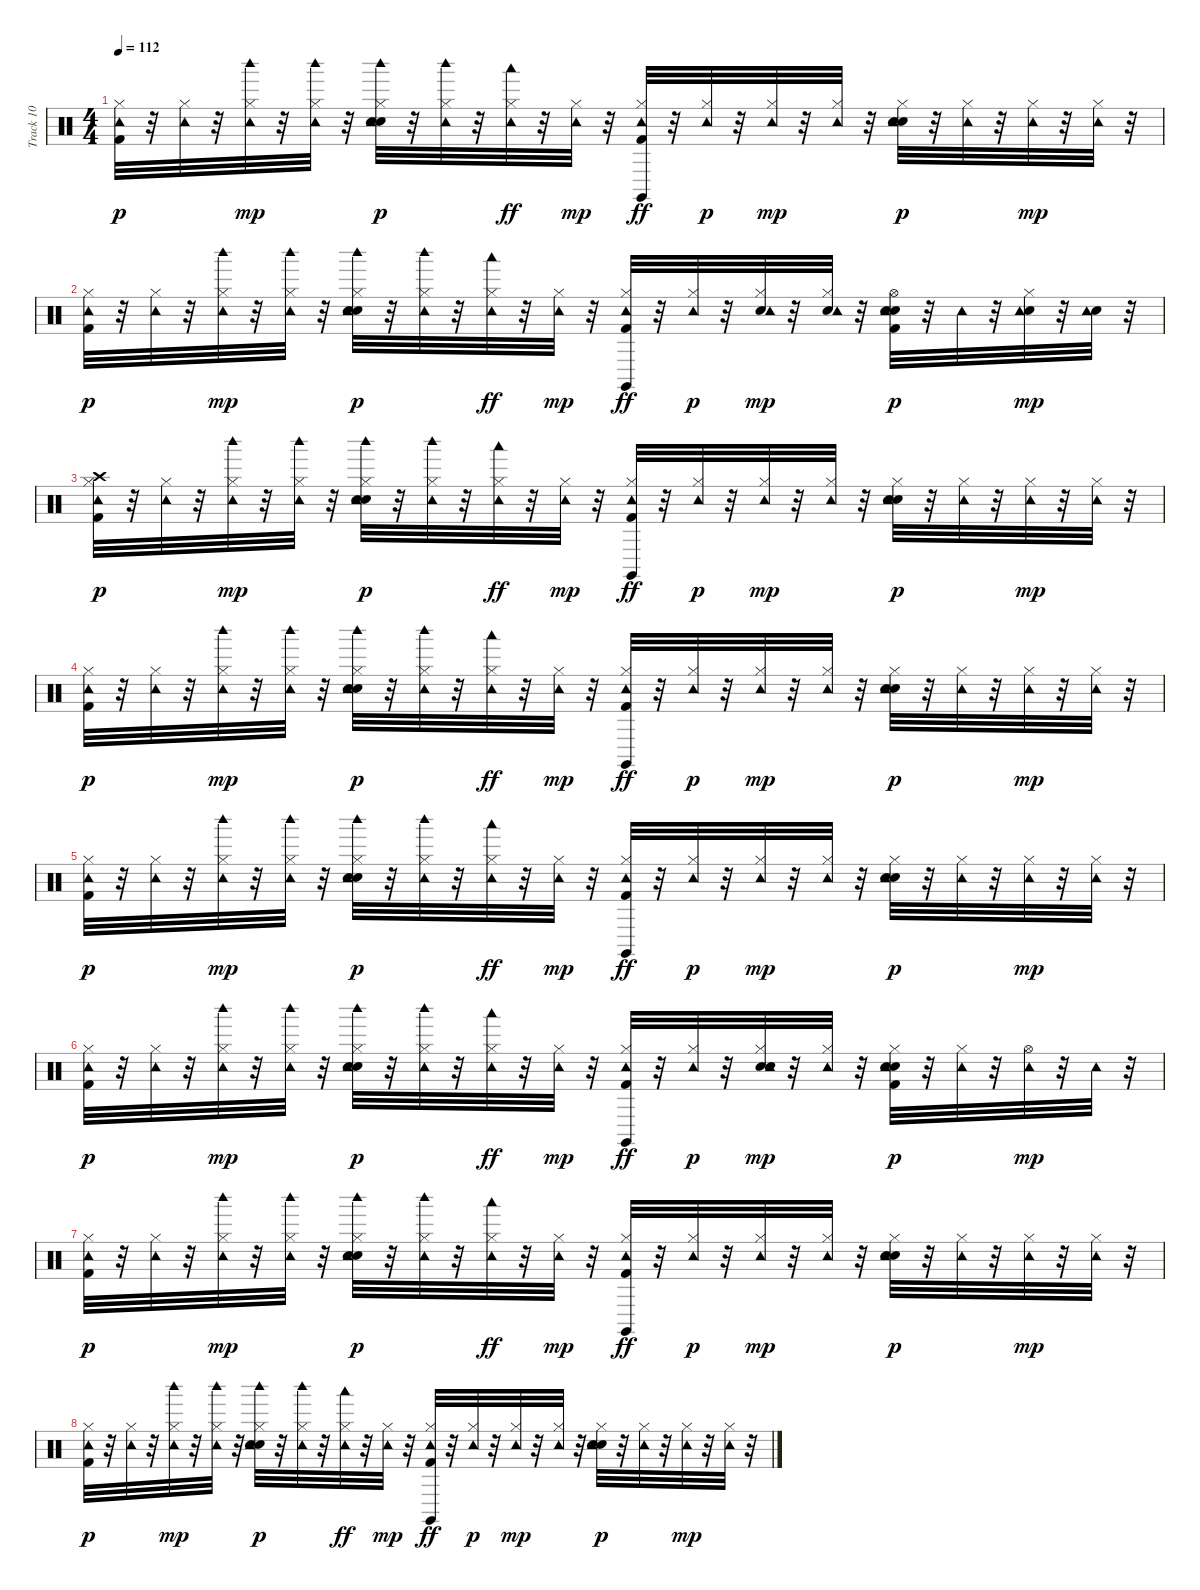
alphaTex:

\track ("Track 10" "Track 10") {instrument percussion}
\staff {score}
\articulation defaults
\ts (4 4)
\tempo 112
\clef neutral
\ks c
("Kick (hit) 2" "Hi-Hat (closed)" "Tambourine (hit)").32{dy p} r.32 ("Hi-Hat (closed)" "Tambourine (hit)").32 r.32 ("Hi-Hat (closed)" "Tambourine (hit)" "Woodblock high (hit)").32{dy mp} r.32 ("Hi-Hat (closed)" "Tambourine (hit)" "Woodblock high (hit)").32 r.32 ("Hand Clap (hit)" "Electric Snare (hit)" "Hi-Hat (closed)" "Tambourine (hit)" "Woodblock high (hit)").32{dy p} r.32 ("Hi-Hat (closed)" "Tambourine (hit)" "Woodblock high (hit)").32 r.32 ("Hi-Hat (closed)" "Tambourine (hit)" "Woodblock low (hit)").32{dy ff} r.32 ("Hi-Hat (closed)" "Tambourine (hit)").32{dy mp} r.32 ("Kick (hit) 2" "Hi-Hat (closed)" "Tambourine (hit)" "Claves (hit)").32{dy ff} r.32 ("Hi-Hat (closed)" "Tambourine (hit)").32{dy p} r.32 ("Hi-Hat (closed)" "Tambourine (hit)").32{dy mp} r.32 ("Hi-Hat (closed)" "Tambourine (hit)").32 r.32 ("Hand Clap (hit)" "Electric Snare (hit)" "Hi-Hat (closed)" "Tambourine (hit)").32{dy p} r.32 ("Hi-Hat (closed)" "Tambourine (hit)").32 r.32 ("Hi-Hat (closed)" "Tambourine (hit)").32{dy mp} r.32 ("Hi-Hat (closed)" "Tambourine (hit)").32 r.32 |
("Kick (hit) 2" "Hi-Hat (closed)" "Tambourine (hit)").32{dy p} r.32 ("Hi-Hat (closed)" "Tambourine (hit)").32 r.32 ("Hi-Hat (closed)" "Tambourine (hit)" "Woodblock high (hit)").32{dy mp} r.32 ("Hi-Hat (closed)" "Tambourine (hit)" "Woodblock high (hit)").32 r.32 ("Hand Clap (hit)" "Electric Snare (hit)" "Hi-Hat (closed)" "Tambourine (hit)" "Woodblock high (hit)").32{dy p} r.32 ("Hi-Hat (closed)" "Tambourine (hit)" "Woodblock high (hit)").32 r.32 ("Hi-Hat (closed)" "Tambourine (hit)" "Woodblock low (hit)").32{dy ff} r.32 ("Hi-Hat (closed)" "Tambourine (hit)").32{dy mp} r.32 ("Kick (hit) 2" "Hi-Hat (closed)" "Tambourine (hit)" "Claves (hit)").32{dy ff} r.32 ("Hi-Hat (closed)" "Tambourine (hit)").32{dy p} r.32 ("Hand Clap (hit)" "Hi-Hat (closed)" "Tambourine (hit)").32{dy mp} r.32 ("Hand Clap (hit)" "Hi-Hat (closed)" "Tambourine (hit)").32 r.32 ("Kick (hit) 2" "Hand Clap (hit)" "Electric Snare (hit)" "Hi-Hat (open)" "Tambourine (hit)").32{dy p} r.32 "Tambourine (hit)".32 r.32 ("Electric Snare (hit)" "Hi-Hat (closed)" "Tambourine (hit)").32{dy mp} r.32 ("Electric Snare (hit)" "Tambourine (hit)").32 r.32 |
("Kick (hit) 2" "Hi-Hat (closed)" "Crash high (hit)" "Tambourine (hit)").32{dy p} r.32 ("Hi-Hat (closed)" "Tambourine (hit)").32 r.32 ("Hi-Hat (closed)" "Tambourine (hit)" "Woodblock high (hit)").32{dy mp} r.32 ("Hi-Hat (closed)" "Tambourine (hit)" "Woodblock high (hit)").32 r.32 ("Hand Clap (hit)" "Electric Snare (hit)" "Hi-Hat (closed)" "Tambourine (hit)" "Woodblock high (hit)").32{dy p} r.32 ("Hi-Hat (closed)" "Tambourine (hit)" "Woodblock high (hit)").32 r.32 ("Hi-Hat (closed)" "Tambourine (hit)" "Woodblock low (hit)").32{dy ff} r.32 ("Hi-Hat (closed)" "Tambourine (hit)").32{dy mp} r.32 ("Kick (hit) 2" "Hi-Hat (closed)" "Tambourine (hit)" "Claves (hit)").32{dy ff} r.32 ("Hi-Hat (closed)" "Tambourine (hit)").32{dy p} r.32 ("Hi-Hat (closed)" "Tambourine (hit)").32{dy mp} r.32 ("Hi-Hat (closed)" "Tambourine (hit)").32 r.32 ("Hand Clap (hit)" "Electric Snare (hit)" "Hi-Hat (closed)" "Tambourine (hit)").32{dy p} r.32 ("Hi-Hat (closed)" "Tambourine (hit)").32 r.32 ("Hi-Hat (closed)" "Tambourine (hit)").32{dy mp} r.32 ("Hi-Hat (closed)" "Tambourine (hit)").32 r.32 |
("Kick (hit) 2" "Hi-Hat (closed)" "Tambourine (hit)").32{dy p} r.32 ("Hi-Hat (closed)" "Tambourine (hit)").32 r.32 ("Hi-Hat (closed)" "Tambourine (hit)" "Woodblock high (hit)").32{dy mp} r.32 ("Hi-Hat (closed)" "Tambourine (hit)" "Woodblock high (hit)").32 r.32 ("Hand Clap (hit)" "Electric Snare (hit)" "Hi-Hat (closed)" "Tambourine (hit)" "Woodblock high (hit)").32{dy p} r.32 ("Hi-Hat (closed)" "Tambourine (hit)" "Woodblock high (hit)").32 r.32 ("Hi-Hat (closed)" "Tambourine (hit)" "Woodblock low (hit)").32{dy ff} r.32 ("Hi-Hat (closed)" "Tambourine (hit)").32{dy mp} r.32 ("Kick (hit) 2" "Hi-Hat (closed)" "Tambourine (hit)" "Claves (hit)").32{dy ff} r.32 ("Hi-Hat (closed)" "Tambourine (hit)").32{dy p} r.32 ("Hi-Hat (closed)" "Tambourine (hit)").32{dy mp} r.32 ("Hi-Hat (closed)" "Tambourine (hit)").32 r.32 ("Hand Clap (hit)" "Electric Snare (hit)" "Hi-Hat (closed)" "Tambourine (hit)").32{dy p} r.32 ("Hi-Hat (closed)" "Tambourine (hit)").32 r.32 ("Hi-Hat (closed)" "Tambourine (hit)").32{dy mp} r.32 ("Hi-Hat (closed)" "Tambourine (hit)").32 r.32 |
("Kick (hit) 2" "Hi-Hat (closed)" "Tambourine (hit)").32{dy p} r.32 ("Hi-Hat (closed)" "Tambourine (hit)").32 r.32 ("Hi-Hat (closed)" "Tambourine (hit)" "Woodblock high (hit)").32{dy mp} r.32 ("Hi-Hat (closed)" "Tambourine (hit)" "Woodblock high (hit)").32 r.32 ("Hand Clap (hit)" "Electric Snare (hit)" "Hi-Hat (closed)" "Tambourine (hit)" "Woodblock high (hit)").32{dy p} r.32 ("Hi-Hat (closed)" "Tambourine (hit)" "Woodblock high (hit)").32 r.32 ("Hi-Hat (closed)" "Tambourine (hit)" "Woodblock low (hit)").32{dy ff} r.32 ("Hi-Hat (closed)" "Tambourine (hit)").32{dy mp} r.32 ("Kick (hit) 2" "Hi-Hat (closed)" "Tambourine (hit)" "Claves (hit)").32{dy ff} r.32 ("Hi-Hat (closed)" "Tambourine (hit)").32{dy p} r.32 ("Hi-Hat (closed)" "Tambourine (hit)").32{dy mp} r.32 ("Hi-Hat (closed)" "Tambourine (hit)").32 r.32 ("Hand Clap (hit)" "Electric Snare (hit)" "Hi-Hat (closed)" "Tambourine (hit)").32{dy p} r.32 ("Hi-Hat (closed)" "Tambourine (hit)").32 r.32 ("Hi-Hat (closed)" "Tambourine (hit)").32{dy mp} r.32 ("Hi-Hat (closed)" "Tambourine (hit)").32 r.32 |
("Kick (hit) 2" "Hi-Hat (closed)" "Tambourine (hit)").32{dy p} r.32 ("Hi-Hat (closed)" "Tambourine (hit)").32 r.32 ("Hi-Hat (closed)" "Tambourine (hit)" "Woodblock high (hit)").32{dy mp} r.32 ("Hi-Hat (closed)" "Tambourine (hit)" "Woodblock high (hit)").32 r.32 ("Hand Clap (hit)" "Electric Snare (hit)" "Hi-Hat (closed)" "Tambourine (hit)" "Woodblock high (hit)").32{dy p} r.32 ("Hi-Hat (closed)" "Tambourine (hit)" "Woodblock high (hit)").32 r.32 ("Hi-Hat (closed)" "Tambourine (hit)" "Woodblock low (hit)").32{dy ff} r.32 ("Hi-Hat (closed)" "Tambourine (hit)").32{dy mp} r.32 ("Kick (hit) 2" "Hi-Hat (closed)" "Tambourine (hit)" "Claves (hit)").32{dy ff} r.32 ("Hi-Hat (closed)" "Tambourine (hit)").32{dy p} r.32 ("Hand Clap (hit)" "Electric Snare (hit)" "Hi-Hat (closed)" "Tambourine (hit)").32{dy mp} r.32 ("Hi-Hat (closed)" "Tambourine (hit)").32 r.32 ("Kick (hit) 2" "Hand Clap (hit)" "Electric Snare (hit)" "Hi-Hat (closed)" "Tambourine (hit)").32{dy p} r.32 ("Hi-Hat (closed)" "Tambourine (hit)").32 r.32 ("Hi-Hat (open)" "Tambourine (hit)").32{dy mp} r.32 "Tambourine (hit)".32 r.32 |
("Kick (hit) 2" "Hi-Hat (closed)" "Tambourine (hit)").32{dy p} r.32 ("Hi-Hat (closed)" "Tambourine (hit)").32 r.32 ("Hi-Hat (closed)" "Tambourine (hit)" "Woodblock high (hit)").32{dy mp} r.32 ("Hi-Hat (closed)" "Tambourine (hit)" "Woodblock high (hit)").32 r.32 ("Hand Clap (hit)" "Electric Snare (hit)" "Hi-Hat (closed)" "Tambourine (hit)" "Woodblock high (hit)").32{dy p} r.32 ("Hi-Hat (closed)" "Tambourine (hit)" "Woodblock high (hit)").32 r.32 ("Hi-Hat (closed)" "Tambourine (hit)" "Woodblock low (hit)").32{dy ff} r.32 ("Hi-Hat (closed)" "Tambourine (hit)").32{dy mp} r.32 ("Kick (hit) 2" "Hi-Hat (closed)" "Tambourine (hit)" "Claves (hit)").32{dy ff} r.32 ("Hi-Hat (closed)" "Tambourine (hit)").32{dy p} r.32 ("Hi-Hat (closed)" "Tambourine (hit)").32{dy mp} r.32 ("Hi-Hat (closed)" "Tambourine (hit)").32 r.32 ("Hand Clap (hit)" "Electric Snare (hit)" "Hi-Hat (closed)" "Tambourine (hit)").32{dy p} r.32 ("Hi-Hat (closed)" "Tambourine (hit)").32 r.32 ("Hi-Hat (closed)" "Tambourine (hit)").32{dy mp} r.32 ("Hi-Hat (closed)" "Tambourine (hit)").32 r.32 |
("Kick (hit) 2" "Hi-Hat (closed)" "Tambourine (hit)").32{dy p} r.32 ("Hi-Hat (closed)" "Tambourine (hit)").32 r.32 ("Hi-Hat (closed)" "Tambourine (hit)" "Woodblock high (hit)").32{dy mp} r.32 ("Hi-Hat (closed)" "Tambourine (hit)" "Woodblock high (hit)").32 r.32 ("Hand Clap (hit)" "Electric Snare (hit)" "Hi-Hat (closed)" "Tambourine (hit)" "Woodblock high (hit)").32{dy p} r.32 ("Hi-Hat (closed)" "Tambourine (hit)" "Woodblock high (hit)").32 r.32 ("Hi-Hat (closed)" "Tambourine (hit)" "Woodblock low (hit)").32{dy ff} r.32 ("Hi-Hat (closed)" "Tambourine (hit)").32{dy mp} r.32 ("Kick (hit) 2" "Hi-Hat (closed)" "Tambourine (hit)" "Claves (hit)").32{dy ff} r.32 ("Hi-Hat (closed)" "Tambourine (hit)").32{dy p} r.32 ("Hi-Hat (closed)" "Tambourine (hit)").32{dy mp} r.32 ("Hi-Hat (closed)" "Tambourine (hit)").32 r.32 ("Hand Clap (hit)" "Electric Snare (hit)" "Hi-Hat (closed)" "Tambourine (hit)").32{dy p} r.32 ("Hi-Hat (closed)" "Tambourine (hit)").32 r.32 ("Hi-Hat (closed)" "Tambourine (hit)").32{dy mp} r.32 ("Hi-Hat (closed)" "Tambourine (hit)").32 r.32
